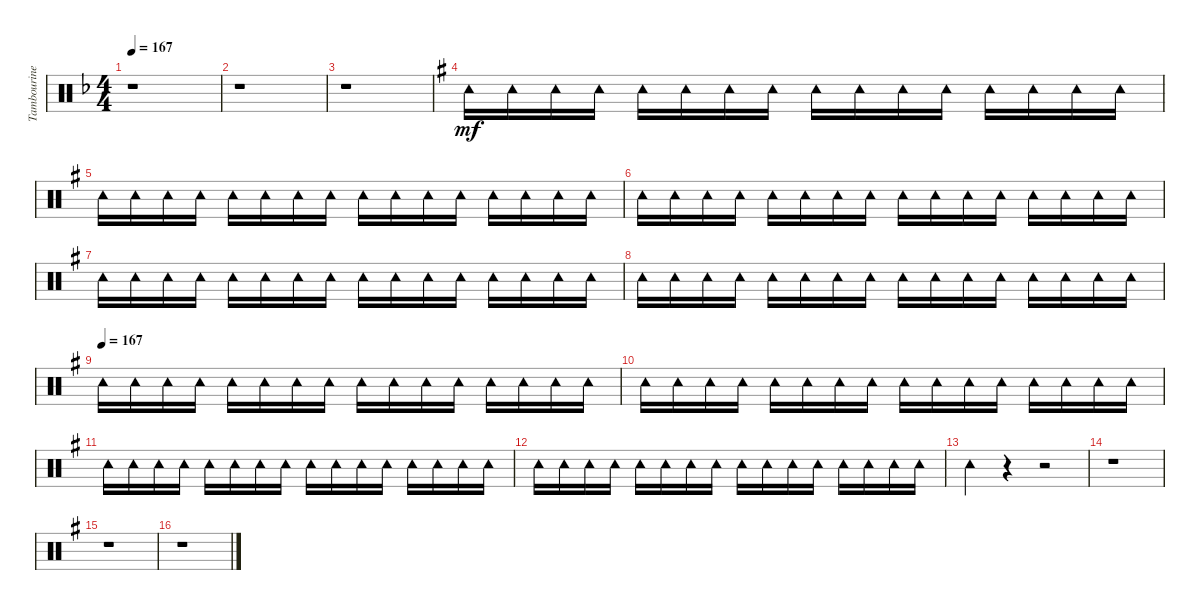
\track ("Tambourine" "Tambourine") {instrument percussion}
\staff {score}
\articulation defaults
\ts (4 4)
\tempo 167
\clef neutral
\ks dminor
r.1{dy mf} |
r.1 |
r.1 |
\ks eminor "Tambourine (hit)".16 "Tambourine (hit)".16 "Tambourine (hit)".16 "Tambourine (hit)".16 "Tambourine (hit)".16 "Tambourine (hit)".16 "Tambourine (hit)".16 "Tambourine (hit)".16 "Tambourine (hit)".16 "Tambourine (hit)".16 "Tambourine (hit)".16 "Tambourine (hit)".16 "Tambourine (hit)".16 "Tambourine (hit)".16 "Tambourine (hit)".16 "Tambourine (hit)".16
|
"Tambourine (hit)".16 "Tambourine (hit)".16 "Tambourine (hit)".16 "Tambourine (hit)".16 "Tambourine (hit)".16 "Tambourine (hit)".16 "Tambourine (hit)".16 "Tambourine (hit)".16 "Tambourine (hit)".16 "Tambourine (hit)".16 "Tambourine (hit)".16 "Tambourine (hit)".16 "Tambourine (hit)".16 "Tambourine (hit)".16 "Tambourine (hit)".16 "Tambourine (hit)".16 |
"Tambourine (hit)".16 "Tambourine (hit)".16 "Tambourine (hit)".16 "Tambourine (hit)".16 "Tambourine (hit)".16 "Tambourine (hit)".16 "Tambourine (hit)".16 "Tambourine (hit)".16 "Tambourine (hit)".16 "Tambourine (hit)".16 "Tambourine (hit)".16 "Tambourine (hit)".16 "Tambourine (hit)".16 "Tambourine (hit)".16 "Tambourine (hit)".16 "Tambourine (hit)".16 |
"Tambourine (hit)".16 "Tambourine (hit)".16 "Tambourine (hit)".16 "Tambourine (hit)".16 "Tambourine (hit)".16 "Tambourine (hit)".16 "Tambourine (hit)".16 "Tambourine (hit)".16 "Tambourine (hit)".16 "Tambourine (hit)".16 "Tambourine (hit)".16 "Tambourine (hit)".16 "Tambourine (hit)".16 "Tambourine (hit)".16 "Tambourine (hit)".16 "Tambourine (hit)".16 |
"Tambourine (hit)".16 "Tambourine (hit)".16 "Tambourine (hit)".16 "Tambourine (hit)".16 "Tambourine (hit)".16 "Tambourine (hit)".16 "Tambourine (hit)".16 "Tambourine (hit)".16 "Tambourine (hit)".16 "Tambourine (hit)".16 "Tambourine (hit)".16 "Tambourine (hit)".16 "Tambourine (hit)".16 "Tambourine (hit)".16 "Tambourine (hit)".16 "Tambourine (hit)".16 |
\tempo (167)
"Tambourine (hit)".16 "Tambourine (hit)".16 "Tambourine (hit)".16 "Tambourine (hit)".16 "Tambourine (hit)".16 "Tambourine (hit)".16 "Tambourine (hit)".16 "Tambourine (hit)".16 "Tambourine (hit)".16 "Tambourine (hit)".16 "Tambourine (hit)".16 "Tambourine (hit)".16 "Tambourine (hit)".16 "Tambourine (hit)".16 "Tambourine (hit)".16 "Tambourine (hit)".16 |
"Tambourine (hit)".16 "Tambourine (hit)".16 "Tambourine (hit)".16 "Tambourine (hit)".16 "Tambourine (hit)".16 "Tambourine (hit)".16 "Tambourine (hit)".16 "Tambourine (hit)".16 "Tambourine (hit)".16 "Tambourine (hit)".16 "Tambourine (hit)".16 "Tambourine (hit)".16 "Tambourine (hit)".16 "Tambourine (hit)".16 "Tambourine (hit)".16 "Tambourine (hit)".16 |
"Tambourine (hit)".16 "Tambourine (hit)".16 "Tambourine (hit)".16 "Tambourine (hit)".16 "Tambourine (hit)".16 "Tambourine (hit)".16 "Tambourine (hit)".16 "Tambourine (hit)".16 "Tambourine (hit)".16 "Tambourine (hit)".16 "Tambourine (hit)".16 "Tambourine (hit)".16 "Tambourine (hit)".16 "Tambourine (hit)".16 "Tambourine (hit)".16 "Tambourine (hit)".16 |
"Tambourine (hit)".16 "Tambourine (hit)".16 "Tambourine (hit)".16 "Tambourine (hit)".16 "Tambourine (hit)".16 "Tambourine (hit)".16 "Tambourine (hit)".16 "Tambourine (hit)".16 "Tambourine (hit)".16 "Tambourine (hit)".16 "Tambourine (hit)".16 "Tambourine (hit)".16 "Tambourine (hit)".16 "Tambourine (hit)".16 "Tambourine (hit)".16 "Tambourine (hit)".16 |
"Tambourine (hit)".4 r.4 r.2 |
r.1 |
r.1 |
r.1
